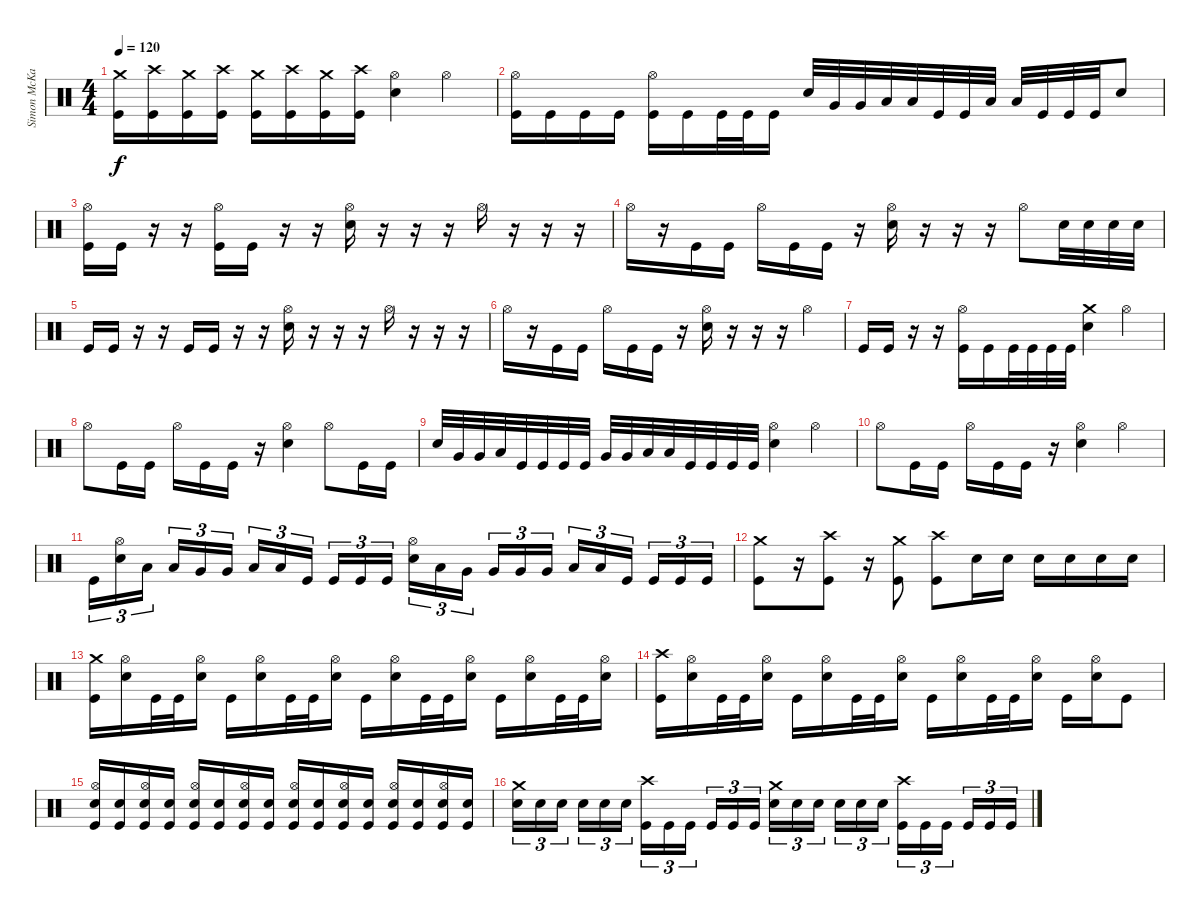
\track ("Simon McKay" "Simon McKa") {instrument percussion}
\staff {score}
\articulation defaults
\ts (4 4)
\tempo 120
\clef neutral
\ks c
("Crash medium (hit)" "Kick (hit)").16{dy f} ("Crash high (hit)" "Kick (hit)").16 ("Crash medium (hit)" "Kick (hit)").16 ("Crash high (hit)" "Kick (hit)").16 ("Crash medium (hit)" "Kick (hit)").16 ("Crash high (hit)" "Kick (hit)").16 ("Crash medium (hit)" "Kick (hit)").16 ("Crash high (hit)" "Kick (hit)").16 ("Hi-Hat (open)" "Electric Snare (hit)").4 "Hi-Hat (open)".4 |
("Hi-Hat (open)" "Kick (hit)").16 "Kick (hit)".16 "Kick (hit)".16 "Kick (hit)".16 ("Hi-Hat (open)" "Kick (hit)").16 "Kick (hit)".16 "Kick (hit)".32 "Kick (hit)".32 "Kick (hit)".16 "Electric Snare (hit)".32 "Very Low Tom (hit)".32 "Very Low Tom (hit)".32 "Low Floor Tom (hit)".32 "Low Floor Tom (hit)".32 "Kick (hit)".32 "Kick (hit)".32 "Low Floor Tom (hit)".32 "Low Floor Tom (hit)".32 "Kick (hit)".32 "Kick (hit)".32 "Kick (hit)".32 "Electric Snare (hit)".8 |
("Hi-Hat (open)" "Kick (hit)").16 "Kick (hit)".16 r.16 r.16 ("Hi-Hat (open)" "Kick (hit)").16 "Kick (hit)".16 r.16 r.16 ("Hi-Hat (open)" "Electric Snare (hit)").16 r.16 r.16 r.16 "Hi-Hat (open)".16 r.16 r.16 r.16 |
"Hi-Hat (open)".16 r.16 "Kick (hit)".16 "Kick (hit)".16 "Hi-Hat (open)".16 "Kick (hit)".16 "Kick (hit)".16 r.16 ("Hi-Hat (open)" "Electric Snare (hit)").16 r.16 r.16 r.16 "Hi-Hat (open)".8 "Electric Snare (hit)".32 "Electric Snare (hit)".32 "Electric Snare (hit)".32 "Electric Snare (hit)".32 |
"Kick (hit)".16 "Kick (hit)".16 r.16 r.16 "Kick (hit)".16 "Kick (hit)".16 r.16 r.16 ("Hi-Hat (open)" "Electric Snare (hit)").16 r.16 r.16 r.16 "Hi-Hat (open)".16 r.16 r.16 r.16 |
"Hi-Hat (open)".16 r.16 "Kick (hit)".16 "Kick (hit)".16 "Hi-Hat (open)".16 "Kick (hit)".16 "Kick (hit)".16 r.16 ("Hi-Hat (open)" "Electric Snare (hit)").16 r.16 r.16 r.16 "Hi-Hat (open)".4 |
"Kick (hit)".16 "Kick (hit)".16 r.16 r.16 ("Hi-Hat (open)" "Kick (hit)").16 "Kick (hit)".16 "Kick (hit)".32 "Kick (hit)".32 "Kick (hit)".32 "Kick (hit)".32 ("Crash medium (hit)" "Electric Snare (hit)").4 "Hi-Hat (open)".4 |
"Hi-Hat (open)".8 "Kick (hit)".16 "Kick (hit)".16 "Hi-Hat (open)".16 "Kick (hit)".16 "Kick (hit)".16 r.16 ("Hi-Hat (open)" "Electric Snare (hit)").4 "Hi-Hat (open)".8 "Kick (hit)".16 "Kick (hit)".16 |
"Electric Snare (hit)".32 "Very Low Tom (hit)".32 "Very Low Tom (hit)".32 "Low Floor Tom (hit)".32 "Kick (hit)".32 "Kick (hit)".32 "Kick (hit)".32 "Kick (hit)".32 "Very Low Tom (hit)".32 "Very Low Tom (hit)".32 "Low Floor Tom (hit)".32 "Low Floor Tom (hit)".32 "Kick (hit)".32 "Kick (hit)".32 "Kick (hit)".32 "Kick (hit)".32 ("Hi-Hat (open)" "Electric Snare (hit)").4 "Hi-Hat (open)".4 |
"Hi-Hat (open)".8 "Kick (hit)".16 "Kick (hit)".16 "Hi-Hat (open)".16 "Kick (hit)".16 "Kick (hit)".16 r.16 ("Hi-Hat (open)" "Electric Snare (hit)").4 "Hi-Hat (open)".4 |
"Kick (hit)".16{tu (3 2)} ("Hi-Hat (open)" "Electric Snare (hit)").16{tu (3 2)} "Low Tom (hit)".16{tu (3 2) beam splitsecondary} "Low Tom (hit)".16{tu (3 2)} "Very Low Tom (hit)".16{tu (3 2)} "Very Low Tom (hit)".16{tu (3 2)} "Low Floor Tom (hit)".16{tu (3 2)} "Low Floor Tom (hit)".16{tu (3 2)} "Kick (hit)".16{tu (3 2) beam splitsecondary} "Kick (hit)".16{tu (3 2)} "Kick (hit)".16{tu (3 2)} "Kick (hit)".16{tu (3 2)} ("Hi-Hat (open)" "Electric Snare (hit)").16{tu (3 2)} "Low Tom (hit)".16{tu (3 2)} "Very Low Tom (hit)".16{tu (3 2) beam splitsecondary} "Very Low Tom (hit)".16{tu (3 2)} "Very Low Tom (hit)".16{tu (3 2)} "Very Low Tom (hit)".16{tu (3 2)} "Low Floor Tom (hit)".16{tu (3 2)} "Low Floor Tom (hit)".16{tu (3 2)} "Kick (hit)".16{tu (3 2) beam splitsecondary} "Kick (hit)".16{tu (3 2)} "Kick (hit)".16{tu (3 2)} "Kick (hit)".16{tu (3 2)} |
("Crash medium (hit)" "Kick (hit)").8 r.16 ("Crash high (hit)" "Kick (hit)").8 r.16 ("Crash medium (hit)" "Kick (hit)").8 ("Crash high (hit)" "Kick (hit)").8 "Electric Snare (hit)".16 "Electric Snare (hit)".16 "Electric Snare (hit)".16 "Electric Snare (hit)".16 "Electric Snare (hit)".16 "Electric Snare (hit)".16 |
("Crash medium (hit)" "Kick (hit)").16 ("Hi-Hat (open)" "Electric Snare (hit)").16 "Kick (hit)".32 "Kick (hit)".32 ("Hi-Hat (open)" "Electric Snare (hit)").16 "Kick (hit)".16 ("Hi-Hat (open)" "Electric Snare (hit)").16 "Kick (hit)".32 "Kick (hit)".32 ("Hi-Hat (open)" "Electric Snare (hit)").16 "Kick (hit)".16 ("Hi-Hat (open)" "Electric Snare (hit)").16 "Kick (hit)".32 "Kick (hit)".32 ("Hi-Hat (open)" "Electric Snare (hit)").16 "Kick (hit)".16 ("Hi-Hat (open)" "Electric Snare (hit)").16 "Kick (hit)".32 "Kick (hit)".32 ("Hi-Hat (open)" "Electric Snare (hit)").16 |
("Crash high (hit)" "Kick (hit)").16 ("Hi-Hat (open)" "Electric Snare (hit)").16 "Kick (hit)".32 "Kick (hit)".32 ("Hi-Hat (open)" "Electric Snare (hit)").16 "Kick (hit)".16 ("Hi-Hat (open)" "Electric Snare (hit)").16 "Kick (hit)".32 "Kick (hit)".32 ("Hi-Hat (open)" "Electric Snare (hit)").16 "Kick (hit)".16 ("Hi-Hat (open)" "Electric Snare (hit)").16 "Kick (hit)".32 "Kick (hit)".32 ("Hi-Hat (open)" "Electric Snare (hit)").16 "Kick (hit)".16 ("Hi-Hat (open)" "Electric Snare (hit)").16 "Kick (hit)".8 |
("Hi-Hat (open)" "Electric Snare (hit)" "Kick (hit)").16 ("Electric Snare (hit)" "Kick (hit)").16 ("Hi-Hat (open)" "Electric Snare (hit)" "Kick (hit)").16 ("Electric Snare (hit)" "Kick (hit)").16 ("Hi-Hat (open)" "Electric Snare (hit)" "Kick (hit)").16 ("Electric Snare (hit)" "Kick (hit)").16 ("Hi-Hat (open)" "Electric Snare (hit)" "Kick (hit)").16 ("Electric Snare (hit)" "Kick (hit)").16 ("Hi-Hat (open)" "Electric Snare (hit)" "Kick (hit)").16 ("Electric Snare (hit)" "Kick (hit)").16 ("Hi-Hat (open)" "Electric Snare (hit)" "Kick (hit)").16 ("Electric Snare (hit)" "Kick (hit)").16 ("Hi-Hat (open)" "Electric Snare (hit)" "Kick (hit)").16 ("Electric Snare (hit)" "Kick (hit)").16 ("Hi-Hat (open)" "Electric Snare (hit)" "Kick (hit)").16 ("Electric Snare (hit)" "Kick (hit)").16 |
("Crash medium (hit)" "Electric Snare (hit)").16{tu (3 2)} "Electric Snare (hit)".16{tu (3 2)} "Electric Snare (hit)".16{tu (3 2) beam splitsecondary} "Electric Snare (hit)".16{tu (3 2)} "Electric Snare (hit)".16{tu (3 2)} "Electric Snare (hit)".16{tu (3 2)} ("Crash high (hit)" "Kick (hit)").16{tu (3 2)} "Kick (hit)".16{tu (3 2)} "Kick (hit)".16{tu (3 2) beam splitsecondary} "Kick (hit)".16{tu (3 2)} "Kick (hit)".16{tu (3 2)} "Kick (hit)".16{tu (3 2)} ("Crash medium (hit)" "Electric Snare (hit)").16{tu (3 2)} "Electric Snare (hit)".16{tu (3 2)} "Electric Snare (hit)".16{tu (3 2) beam splitsecondary} "Electric Snare (hit)".16{tu (3 2)} "Electric Snare (hit)".16{tu (3 2)} "Electric Snare (hit)".16{tu (3 2)} ("Crash high (hit)" "Kick (hit)").16{tu (3 2)} "Kick (hit)".16{tu (3 2)} "Kick (hit)".16{tu (3 2) beam splitsecondary} "Kick (hit)".16{tu (3 2)} "Kick (hit)".16{tu (3 2)} "Kick (hit)".16{tu (3 2)}
